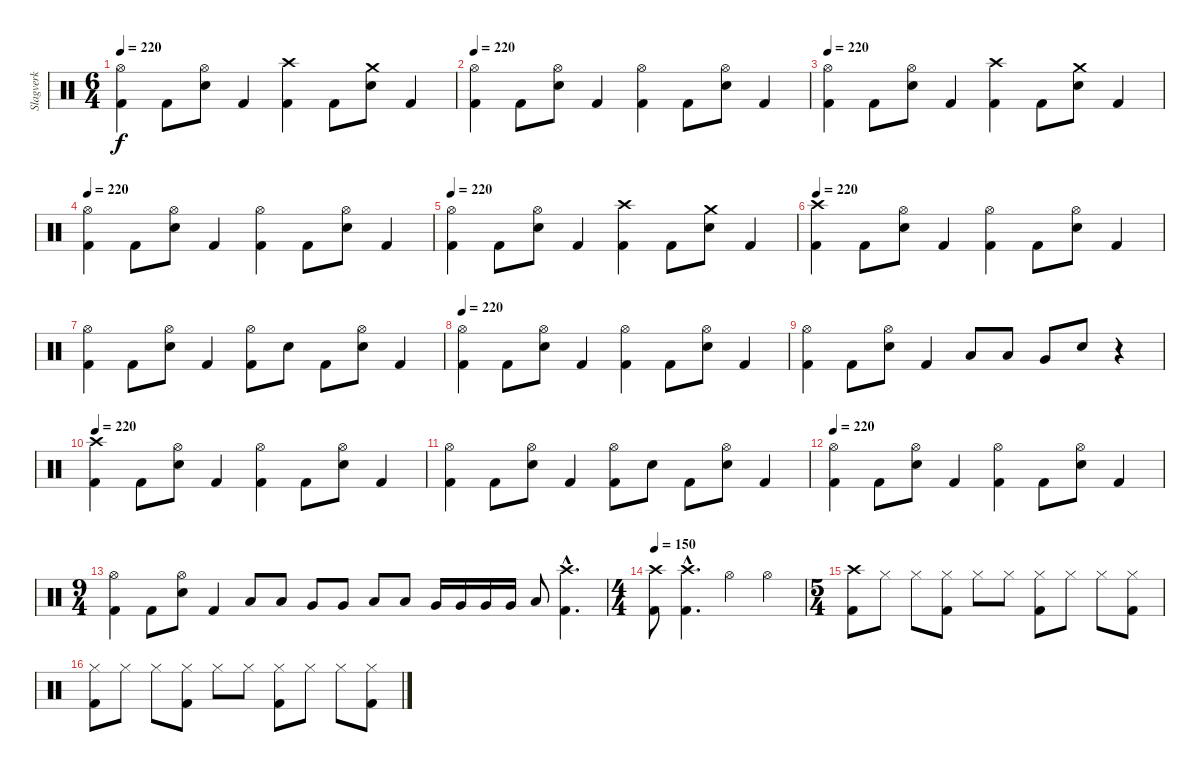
\track ("Slagverk" "Slagverk") {instrument percussion}
\staff {score}
\articulation defaults
\ts (6 4)
\tempo 220
\clef neutral
\ks c
("Hi-Hat (open)" "Kick (hit) 2").4{dy f} "Kick (hit) 2".8 ("Hi-Hat (open)" "Electric Snare (hit)").8 "Kick (hit) 2".4 ("Crash high (hit)" "Kick (hit) 2").4 "Kick (hit) 2".8 ("Crash medium (hit)" "Electric Snare (hit)").8 "Kick (hit) 2".4 |
\tempo 220
("Hi-Hat (open)" "Kick (hit) 2").4 "Kick (hit) 2".8 ("Hi-Hat (open)" "Electric Snare (hit)").8 "Kick (hit) 2".4 ("Hi-Hat (open)" "Kick (hit) 2").4 "Kick (hit) 2".8 ("Hi-Hat (open)" "Electric Snare (hit)").8 "Kick (hit) 2".4 |
\tempo 220
("Hi-Hat (open)" "Kick (hit) 2").4 "Kick (hit) 2".8 ("Hi-Hat (open)" "Electric Snare (hit)").8 "Kick (hit) 2".4 ("Crash high (hit)" "Kick (hit) 2").4 "Kick (hit) 2".8 ("Crash medium (hit)" "Electric Snare (hit)").8 "Kick (hit) 2".4 |
\tempo 220
("Hi-Hat (open)" "Kick (hit) 2").4 "Kick (hit) 2".8 ("Hi-Hat (open)" "Electric Snare (hit)").8 "Kick (hit) 2".4 ("Hi-Hat (open)" "Kick (hit) 2").4 "Kick (hit) 2".8 ("Hi-Hat (open)" "Electric Snare (hit)").8 "Kick (hit) 2".4 |
\tempo 220
("Hi-Hat (open)" "Kick (hit) 2").4 "Kick (hit) 2".8 ("Hi-Hat (open)" "Electric Snare (hit)").8 "Kick (hit) 2".4 ("Crash high (hit)" "Kick (hit) 2").4 "Kick (hit) 2".8 ("Crash medium (hit)" "Electric Snare (hit)").8 "Kick (hit) 2".4 |
\tempo 220
("Crash high (hit)" "Kick (hit) 2").4 "Kick (hit) 2".8 ("Hi-Hat (open)" "Electric Snare (hit)").8 "Kick (hit) 2".4 ("Hi-Hat (open)" "Kick (hit) 2").4 "Kick (hit) 2".8 ("Hi-Hat (open)" "Electric Snare (hit)").8 "Kick (hit) 2".4 |
("Hi-Hat (open)" "Kick (hit) 2").4 "Kick (hit) 2".8 ("Hi-Hat (open)" "Electric Snare (hit)").8 "Kick (hit) 2".4 ("Hi-Hat (open)" "Kick (hit) 2").8 "Electric Snare (hit)".8 "Kick (hit) 2".8 ("Hi-Hat (open)" "Electric Snare (hit)").8 "Kick (hit) 2".4 |
\tempo 220
("Hi-Hat (open)" "Kick (hit) 2").4 "Kick (hit) 2".8 ("Hi-Hat (open)" "Electric Snare (hit)").8 "Kick (hit) 2".4 ("Hi-Hat (open)" "Kick (hit) 2").4 "Kick (hit) 2".8 ("Hi-Hat (open)" "Electric Snare (hit)").8 "Kick (hit) 2".4 |
("Hi-Hat (open)" "Kick (hit) 2").4 "Kick (hit) 2".8 ("Hi-Hat (open)" "Electric Snare (hit)").8 "Kick (hit) 2".4 "Low Tom (hit)".8 "Low Tom (hit)".8 "Very Low Tom (hit)".8 "Electric Snare (hit)".8 r.4 |
\tempo 220
("Crash high (hit)" "Kick (hit) 2").4 "Kick (hit) 2".8 ("Hi-Hat (open)" "Electric Snare (hit)").8 "Kick (hit) 2".4 ("Hi-Hat (open)" "Kick (hit) 2").4 "Kick (hit) 2".8 ("Hi-Hat (open)" "Electric Snare (hit)").8 "Kick (hit) 2".4 |
("Hi-Hat (open)" "Kick (hit) 2").4 "Kick (hit) 2".8 ("Hi-Hat (open)" "Electric Snare (hit)").8 "Kick (hit) 2".4 ("Hi-Hat (open)" "Kick (hit) 2").8 "Electric Snare (hit)".8 "Kick (hit) 2".8 ("Hi-Hat (open)" "Electric Snare (hit)").8 "Kick (hit) 2".4 |
\tempo 220
("Hi-Hat (open)" "Kick (hit) 2").4 "Kick (hit) 2".8 ("Hi-Hat (open)" "Electric Snare (hit)").8 "Kick (hit) 2".4 ("Hi-Hat (open)" "Kick (hit) 2").4 "Kick (hit) 2".8 ("Hi-Hat (open)" "Electric Snare (hit)").8 "Kick (hit) 2".4 |
\ts (9 4)
("Hi-Hat (open)" "Kick (hit) 2").4 "Kick (hit) 2".8 ("Hi-Hat (open)" "Electric Snare (hit)").8 "Kick (hit) 2".4 "Low Tom (hit)".8 "Low Tom (hit)".8 "Very Low Tom (hit)".8 "Very Low Tom (hit)".8 "Low Floor Tom (hit)".8 "Low Floor Tom (hit)".8 "Very Low Tom (hit)".16 "Very Low Tom (hit)".16 "Very Low Tom (hit)".16 "Very Low Tom (hit)".16 "Low Floor Tom (hit)".8 ("Crash high (hit)"{hac} "Kick (hit) 2"{hac}).4{d} |
\ts (4 4)
\tempo 150
("Crash high (hit)" "Kick (hit) 2").8 ("Crash high (hit)"{hac} "Kick (hit) 2"{hac}).4{d} "Hi-Hat (open)".4 "Hi-Hat (open)".4 |
\ts (5 4)
("Crash high (hit)" "Kick (hit) 2").8 "Hi-Hat (closed)".8 "Hi-Hat (closed)".8 ("Hi-Hat (closed)" "Kick (hit) 2").8 "Hi-Hat (closed)".8 "Hi-Hat (closed)".8 ("Hi-Hat (closed)" "Kick (hit) 2").8 "Hi-Hat (closed)".8 "Hi-Hat (closed)".8 ("Hi-Hat (closed)" "Kick (hit) 2").8 |
("Hi-Hat (closed)" "Kick (hit) 2").8 "Hi-Hat (closed)".8 "Hi-Hat (closed)".8 ("Hi-Hat (closed)" "Kick (hit) 2").8 "Hi-Hat (closed)".8 "Hi-Hat (closed)".8 ("Hi-Hat (closed)" "Kick (hit) 2").8 "Hi-Hat (closed)".8 "Hi-Hat (closed)".8 ("Hi-Hat (closed)" "Kick (hit) 2").8
